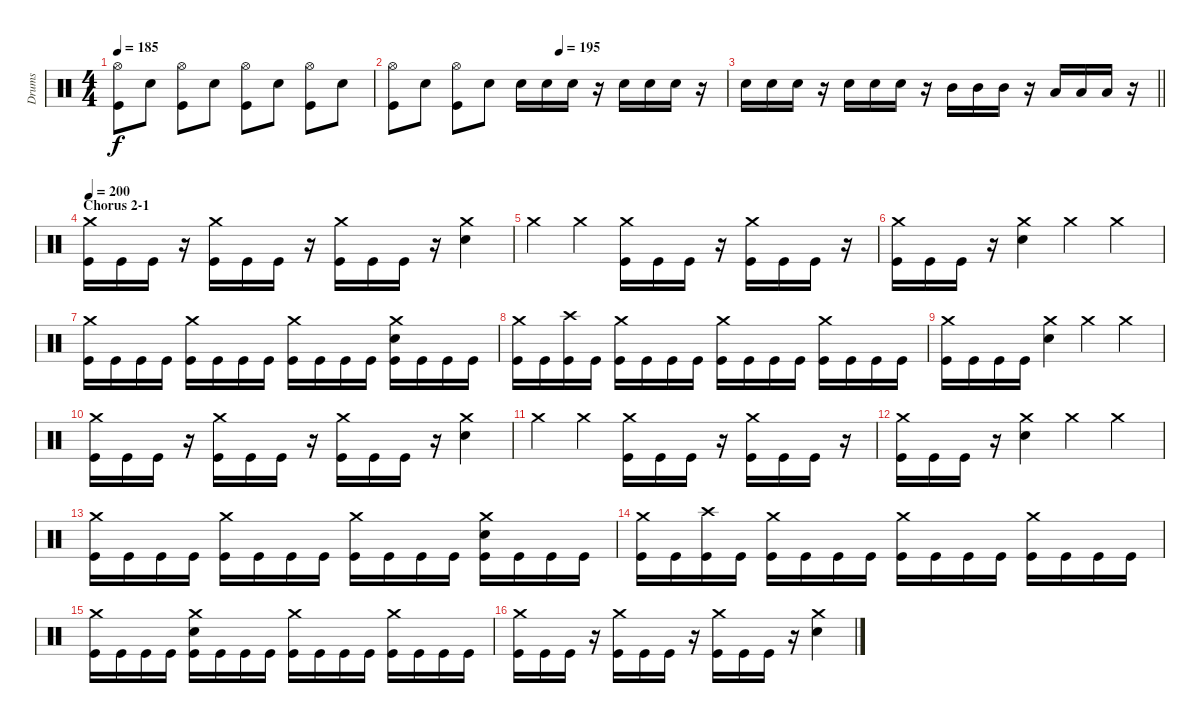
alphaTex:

\track ("Drums" "Drums") {instrument percussion}
\staff {score}
\articulation defaults
\ts (4 4)
\tempo 185
\clef neutral
\ks c
("Hi-Hat (open)" "Kick (hit)").8{dy f} "Snare (hit) 2".8 ("Hi-Hat (open)" "Kick (hit)").8 "Snare (hit) 2".8 ("Hi-Hat (open)" "Kick (hit)").8 "Snare (hit) 2".8 ("Hi-Hat (open)" "Kick (hit)").8 "Snare (hit) 2".8 |
\tempo (195 0.5)
("Hi-Hat (open)" "Kick (hit)").8 "Snare (hit) 2".8 ("Hi-Hat (open)" "Kick (hit)").8 "Snare (hit) 2".8 "Snare (hit) 2".16 "Snare (hit) 2".16 "Snare (hit) 2".16 r.16 "Snare (hit) 2".16 "Snare (hit) 2".16 "Snare (hit) 2".16 r.16 |
\barLineRight lightlight "Snare (hit) 2".16 "Snare (hit) 2".16 "Snare (hit) 2".16
r.16 "Snare (hit) 2".16 "Snare (hit) 2".16 "Snare (hit) 2".16 r.16 "Mid Tom (hit)".16 "Mid Tom (hit)".16 "Mid Tom (hit)".16 r.16 "Low Tom (hit)".16 "Low Tom (hit)".16 "Low Tom (hit)".16 r.16 |
\section ("" "Chorus 2-1")
\tempo 200
("Crash medium (hit)" "Kick (hit)").16 "Kick (hit)".16 "Kick (hit)".16 r.16 ("Crash medium (hit)" "Kick (hit)").16 "Kick (hit)".16 "Kick (hit)".16 r.16 ("Crash medium (hit)" "Kick (hit)").16 "Kick (hit)".16 "Kick (hit)".16 r.16 ("Crash medium (hit)" "Snare (hit) 2").4 |
"Crash medium (hit)".4 "Crash medium (hit)".4 ("Crash medium (hit)" "Kick (hit)").16 "Kick (hit)".16 "Kick (hit)".16 r.16 ("Crash medium (hit)" "Kick (hit)").16 "Kick (hit)".16 "Kick (hit)".16 r.16 |
("Crash medium (hit)" "Kick (hit)").16 "Kick (hit)".16 "Kick (hit)".16 r.16 ("Crash medium (hit)" "Snare (hit) 2").4 "Crash medium (hit)".4 "Crash medium (hit)".4 |
("Crash medium (hit)" "Kick (hit)").16 "Kick (hit)".16 "Kick (hit)".16 "Kick (hit)".16 ("Crash medium (hit)" "Kick (hit)").16 "Kick (hit)".16 "Kick (hit)".16 "Kick (hit)".16 ("Crash medium (hit)" "Kick (hit)").16 "Kick (hit)".16 "Kick (hit)".16 "Kick (hit)".16 ("Crash medium (hit)" "Snare (hit) 2" "Kick (hit)").16 "Kick (hit)".16 "Kick (hit)".16 "Kick (hit)".16 |
("Crash medium (hit)" "Kick (hit)").16 "Kick (hit)".16 ("Crash high (hit)" "Kick (hit)").16 "Kick (hit)".16 ("Crash medium (hit)" "Kick (hit)").16 "Kick (hit)".16 "Kick (hit)".16 "Kick (hit)".16 ("Crash medium (hit)" "Kick (hit)").16 "Kick (hit)".16 "Kick (hit)".16 "Kick (hit)".16 ("Crash medium (hit)" "Kick (hit)").16 "Kick (hit)".16 "Kick (hit)".16 "Kick (hit)".16 |
("Crash medium (hit)" "Kick (hit)").16 "Kick (hit)".16 "Kick (hit)".16 "Kick (hit)".16 ("Crash medium (hit)" "Snare (hit) 2").4 "Crash medium (hit)".4 "Crash medium (hit)".4 |
("Crash medium (hit)" "Kick (hit)").16 "Kick (hit)".16 "Kick (hit)".16 r.16 ("Crash medium (hit)" "Kick (hit)").16 "Kick (hit)".16 "Kick (hit)".16 r.16 ("Crash medium (hit)" "Kick (hit)").16 "Kick (hit)".16 "Kick (hit)".16 r.16 ("Crash medium (hit)" "Snare (hit) 2").4 |
"Crash medium (hit)".4 "Crash medium (hit)".4 ("Crash medium (hit)" "Kick (hit)").16 "Kick (hit)".16 "Kick (hit)".16 r.16 ("Crash medium (hit)" "Kick (hit)").16 "Kick (hit)".16 "Kick (hit)".16 r.16 |
("Crash medium (hit)" "Kick (hit)").16 "Kick (hit)".16 "Kick (hit)".16 r.16 ("Crash medium (hit)" "Snare (hit) 2").4 "Crash medium (hit)".4 "Crash medium (hit)".4 |
("Crash medium (hit)" "Kick (hit)").16 "Kick (hit)".16 "Kick (hit)".16 "Kick (hit)".16 ("Crash medium (hit)" "Kick (hit)").16 "Kick (hit)".16 "Kick (hit)".16 "Kick (hit)".16 ("Crash medium (hit)" "Kick (hit)").16 "Kick (hit)".16 "Kick (hit)".16 "Kick (hit)".16 ("Crash medium (hit)" "Snare (hit) 2" "Kick (hit)").16 "Kick (hit)".16 "Kick (hit)".16 "Kick (hit)".16 |
("Crash medium (hit)" "Kick (hit)").16 "Kick (hit)".16 ("Crash high (hit)" "Kick (hit)").16 "Kick (hit)".16 ("Crash medium (hit)" "Kick (hit)").16 "Kick (hit)".16 "Kick (hit)".16 "Kick (hit)".16 ("Crash medium (hit)" "Kick (hit)").16 "Kick (hit)".16 "Kick (hit)".16 "Kick (hit)".16 ("Crash medium (hit)" "Kick (hit)").16 "Kick (hit)".16 "Kick (hit)".16 "Kick (hit)".16 |
("Crash medium (hit)" "Kick (hit)").16 "Kick (hit)".16 "Kick (hit)".16 "Kick (hit)".16 ("Crash medium (hit)" "Snare (hit) 2" "Kick (hit)").16 "Kick (hit)".16 "Kick (hit)".16 "Kick (hit)".16 ("Crash medium (hit)" "Kick (hit)").16 "Kick (hit)".16 "Kick (hit)".16 "Kick (hit)".16 ("Crash medium (hit)" "Kick (hit)").16 "Kick (hit)".16 "Kick (hit)".16 "Kick (hit)".16 |
("Crash medium (hit)" "Kick (hit)").16 "Kick (hit)".16 "Kick (hit)".16 r.16 ("Crash medium (hit)" "Kick (hit)").16 "Kick (hit)".16 "Kick (hit)".16 r.16 ("Crash medium (hit)" "Kick (hit)").16 "Kick (hit)".16 "Kick (hit)".16 r.16 ("Crash medium (hit)" "Snare (hit) 2").4
